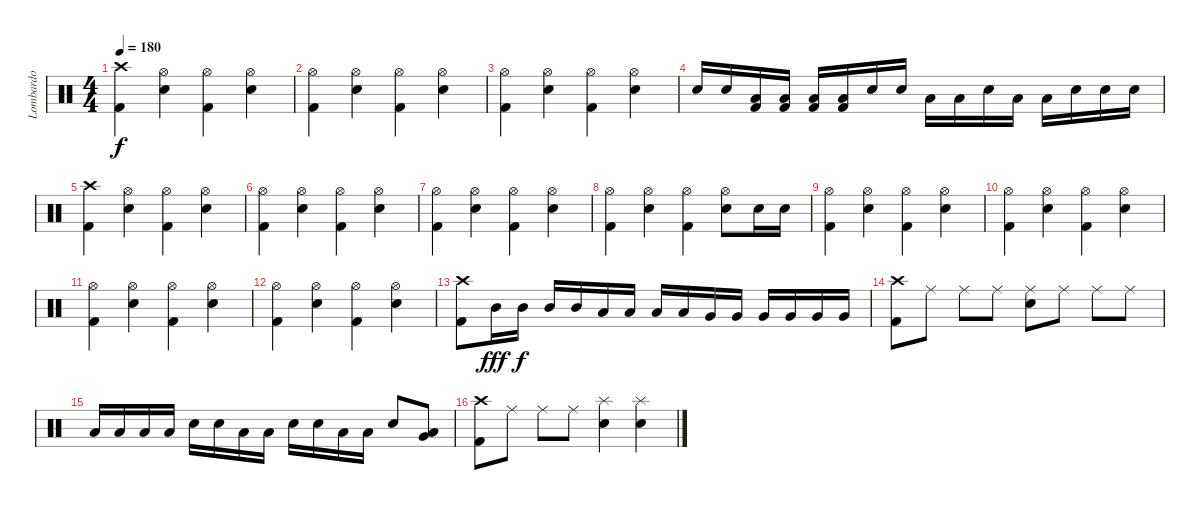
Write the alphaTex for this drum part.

\track ("Lombardo" "Lombardo") {instrument percussion}
\staff {score}
\articulation defaults
\ts (4 4)
\tempo 180
\clef neutral
\ks c
("Crash high (hit)" "Kick (hit) 2").4{dy f} ("Electric Snare (hit)" "Hi-Hat (open)").4 ("Kick (hit) 2" "Hi-Hat (open)").4 ("Electric Snare (hit)" "Hi-Hat (open)").4 |
("Hi-Hat (open)" "Kick (hit) 2").4 ("Electric Snare (hit)" "Hi-Hat (open)").4 ("Kick (hit) 2" "Hi-Hat (open)").4 ("Electric Snare (hit)" "Hi-Hat (open)").4 |
("Hi-Hat (open)" "Kick (hit) 2").4 ("Electric Snare (hit)" "Hi-Hat (open)").4 ("Kick (hit) 2" "Hi-Hat (open)").4 ("Electric Snare (hit)" "Hi-Hat (open)").4 |
"Electric Snare (hit)".16 "Electric Snare (hit)".16 ("Kick (hit) 2" "Low Tom (hit)").16 ("Kick (hit) 2" "Low Tom (hit)").16 ("Kick (hit) 2" "Low Tom (hit)").16 ("Kick (hit) 2" "Low Tom (hit)").16 "Electric Snare (hit)".16 "Electric Snare (hit)".16 "Low Tom (hit)".16 "Low Tom (hit)".16 "Electric Snare (hit)".16 "Low Tom (hit)".16 "Low Tom (hit)".16 "Electric Snare (hit)".16 "Electric Snare (hit)".16 "Electric Snare (hit)".16 |
("Crash high (hit)" "Kick (hit) 2").4 ("Electric Snare (hit)" "Hi-Hat (open)").4 ("Kick (hit) 2" "Hi-Hat (open)").4 ("Electric Snare (hit)" "Hi-Hat (open)").4 |
("Hi-Hat (open)" "Kick (hit) 2").4 ("Electric Snare (hit)" "Hi-Hat (open)").4 ("Kick (hit) 2" "Hi-Hat (open)").4 ("Electric Snare (hit)" "Hi-Hat (open)").4 |
("Hi-Hat (open)" "Kick (hit) 2").4 ("Electric Snare (hit)" "Hi-Hat (open)").4 ("Kick (hit) 2" "Hi-Hat (open)").4 ("Electric Snare (hit)" "Hi-Hat (open)").4 |
("Hi-Hat (open)" "Kick (hit) 2").4 ("Electric Snare (hit)" "Hi-Hat (open)").4 ("Kick (hit) 2" "Hi-Hat (open)").4 ("Electric Snare (hit)" "Hi-Hat (open)").8 "Electric Snare (hit)".16 "Electric Snare (hit)".16 |
("Hi-Hat (open)" "Kick (hit) 2").4 ("Electric Snare (hit)" "Hi-Hat (open)").4 ("Kick (hit) 2" "Hi-Hat (open)").4 ("Electric Snare (hit)" "Hi-Hat (open)").4 |
("Hi-Hat (open)" "Kick (hit) 2").4 ("Electric Snare (hit)" "Hi-Hat (open)").4 ("Kick (hit) 2" "Hi-Hat (open)").4 ("Electric Snare (hit)" "Hi-Hat (open)").4 |
("Hi-Hat (open)" "Kick (hit) 2").4 ("Electric Snare (hit)" "Hi-Hat (open)").4 ("Kick (hit) 2" "Hi-Hat (open)").4 ("Electric Snare (hit)" "Hi-Hat (open)").4 |
("Hi-Hat (open)" "Kick (hit) 2").4 ("Electric Snare (hit)" "Hi-Hat (open)").4 ("Kick (hit) 2" "Hi-Hat (open)").4 ("Electric Snare (hit)" "Hi-Hat (open)").4 |
("Crash high (hit)" "Kick (hit) 2").8 "Mid Tom (hit)".16{dy fff} "Mid Tom (hit)".16{dy f} "Mid Tom (hit)".16 "Mid Tom (hit)".16 "Low Tom (hit)".16 "Low Tom (hit)".16 "Low Tom (hit)".16 "Low Tom (hit)".16 "Very Low Tom (hit)".16 "Very Low Tom (hit)".16 "Very Low Tom (hit)".16 "Very Low Tom (hit)".16 "Very Low Tom (hit)".16 "Very Low Tom (hit)".16 |
("Crash high (hit)" "Kick (hit) 2").8 "Ride (middle)".8 "Ride (middle)".8 "Ride (middle)".8 ("Electric Snare (hit)" "Ride (middle)").8 "Ride (middle)".8 "Ride (middle)".8 "Ride (middle)".8 |
"Low Tom (hit)".16 "Low Tom (hit)".16 "Low Tom (hit)".16 "Low Tom (hit)".16 "Electric Snare (hit)".16 "Electric Snare (hit)".16 "Low Tom (hit)".16 "Low Tom (hit)".16 "Electric Snare (hit)".16 "Electric Snare (hit)".16 "Low Tom (hit)".16 "Low Tom (hit)".16 "Electric Snare (hit)".8 ("Very Low Tom (hit)" "Low Tom (hit)").8 |
("Crash high (hit)" "Kick (hit) 2").8 "Ride (middle)".8 "Ride (middle)".8 "Ride (middle)".8 ("Electric Snare (hit)" "Splash (hit)").4 ("Electric Snare (hit)" "Splash (hit)").4
